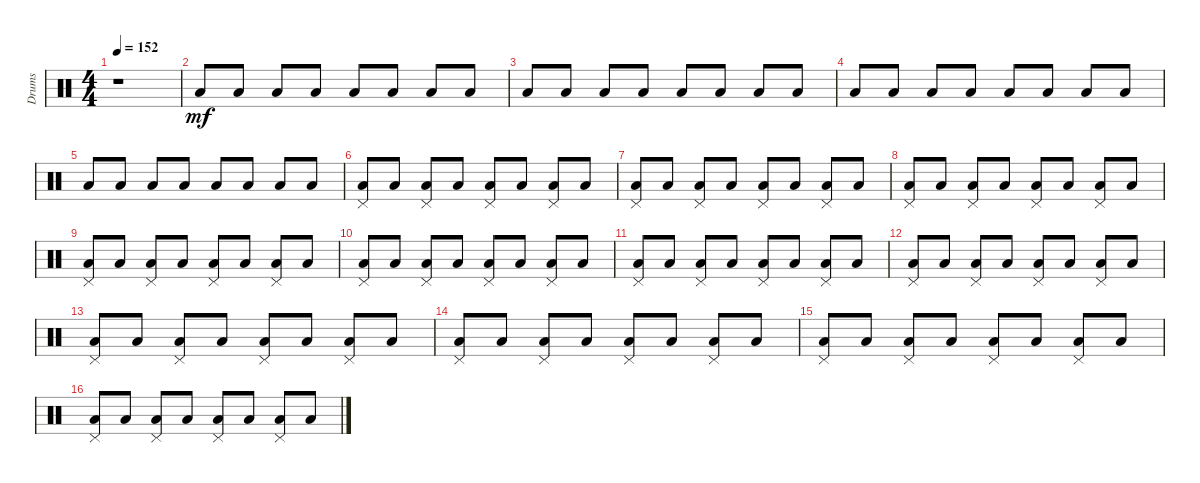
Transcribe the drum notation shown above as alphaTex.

\track ("Drums" "Drums") {instrument percussion}
\staff {score}
\articulation defaults
\ts (4 4)
\tempo 152
\clef neutral
\ks c
r.1{dy mf} |
"Low Floor Tom (hit)".8 "Low Floor Tom (hit)".8 "Low Floor Tom (hit)".8 "Low Floor Tom (hit)".8 "Low Floor Tom (hit)".8 "Low Floor Tom (hit)".8 "Low Floor Tom (hit)".8 "Low Floor Tom (hit)".8 |
"Low Floor Tom (hit)".8 "Low Floor Tom (hit)".8 "Low Floor Tom (hit)".8 "Low Floor Tom (hit)".8 "Low Floor Tom (hit)".8 "Low Floor Tom (hit)".8 "Low Floor Tom (hit)".8 "Low Floor Tom (hit)".8 |
"Low Floor Tom (hit)".8 "Low Floor Tom (hit)".8 "Low Floor Tom (hit)".8 "Low Floor Tom (hit)".8 "Low Floor Tom (hit)".8 "Low Floor Tom (hit)".8 "Low Floor Tom (hit)".8 "Low Floor Tom (hit)".8 |
"Low Floor Tom (hit)".8 "Low Floor Tom (hit)".8 "Low Floor Tom (hit)".8 "Low Floor Tom (hit)".8 "Low Floor Tom (hit)".8 "Low Floor Tom (hit)".8 "Low Floor Tom (hit)".8 "Low Floor Tom (hit)".8 |
("Pedal Hi-Hat (hit)" "Low Floor Tom (hit)").8 "Low Floor Tom (hit)".8 ("Pedal Hi-Hat (hit)" "Low Floor Tom (hit)").8 "Low Floor Tom (hit)".8 ("Pedal Hi-Hat (hit)" "Low Floor Tom (hit)").8 "Low Floor Tom (hit)".8 ("Pedal Hi-Hat (hit)" "Low Floor Tom (hit)").8 "Low Floor Tom (hit)".8 |
("Pedal Hi-Hat (hit)" "Low Floor Tom (hit)").8 "Low Floor Tom (hit)".8 ("Pedal Hi-Hat (hit)" "Low Floor Tom (hit)").8 "Low Floor Tom (hit)".8 ("Pedal Hi-Hat (hit)" "Low Floor Tom (hit)").8 "Low Floor Tom (hit)".8 ("Pedal Hi-Hat (hit)" "Low Floor Tom (hit)").8 "Low Floor Tom (hit)".8 |
("Low Floor Tom (hit)" "Pedal Hi-Hat (hit)").8 "Low Floor Tom (hit)".8 ("Low Floor Tom (hit)" "Pedal Hi-Hat (hit)").8 "Low Floor Tom (hit)".8 ("Low Floor Tom (hit)" "Pedal Hi-Hat (hit)").8 "Low Floor Tom (hit)".8 ("Low Floor Tom (hit)" "Pedal Hi-Hat (hit)").8 "Low Floor Tom (hit)".8 |
("Low Floor Tom (hit)" "Pedal Hi-Hat (hit)").8 "Low Floor Tom (hit)".8 ("Low Floor Tom (hit)" "Pedal Hi-Hat (hit)").8 "Low Floor Tom (hit)".8 ("Low Floor Tom (hit)" "Pedal Hi-Hat (hit)").8 "Low Floor Tom (hit)".8 ("Low Floor Tom (hit)" "Pedal Hi-Hat (hit)").8 "Low Floor Tom (hit)".8 |
("Low Floor Tom (hit)" "Pedal Hi-Hat (hit)").8 "Low Floor Tom (hit)".8 ("Low Floor Tom (hit)" "Pedal Hi-Hat (hit)").8 "Low Floor Tom (hit)".8 ("Low Floor Tom (hit)" "Pedal Hi-Hat (hit)").8 "Low Floor Tom (hit)".8 ("Low Floor Tom (hit)" "Pedal Hi-Hat (hit)").8 "Low Floor Tom (hit)".8 |
("Low Floor Tom (hit)" "Pedal Hi-Hat (hit)").8 "Low Floor Tom (hit)".8 ("Low Floor Tom (hit)" "Pedal Hi-Hat (hit)").8 "Low Floor Tom (hit)".8 ("Low Floor Tom (hit)" "Pedal Hi-Hat (hit)").8 "Low Floor Tom (hit)".8 ("Low Floor Tom (hit)" "Pedal Hi-Hat (hit)").8 "Low Floor Tom (hit)".8 |
("Pedal Hi-Hat (hit)" "Low Floor Tom (hit)").8 "Low Floor Tom (hit)".8 ("Pedal Hi-Hat (hit)" "Low Floor Tom (hit)").8 "Low Floor Tom (hit)".8 ("Pedal Hi-Hat (hit)" "Low Floor Tom (hit)").8 "Low Floor Tom (hit)".8 ("Pedal Hi-Hat (hit)" "Low Floor Tom (hit)").8 "Low Floor Tom (hit)".8 |
("Pedal Hi-Hat (hit)" "Low Floor Tom (hit)").8 "Low Floor Tom (hit)".8 ("Pedal Hi-Hat (hit)" "Low Floor Tom (hit)").8 "Low Floor Tom (hit)".8 ("Pedal Hi-Hat (hit)" "Low Floor Tom (hit)").8 "Low Floor Tom (hit)".8 ("Pedal Hi-Hat (hit)" "Low Floor Tom (hit)").8 "Low Floor Tom (hit)".8 |
("Pedal Hi-Hat (hit)" "Low Floor Tom (hit)").8 "Low Floor Tom (hit)".8 ("Pedal Hi-Hat (hit)" "Low Floor Tom (hit)").8 "Low Floor Tom (hit)".8 ("Pedal Hi-Hat (hit)" "Low Floor Tom (hit)").8 "Low Floor Tom (hit)".8 ("Pedal Hi-Hat (hit)" "Low Floor Tom (hit)").8 "Low Floor Tom (hit)".8 |
("Pedal Hi-Hat (hit)" "Low Floor Tom (hit)").8 "Low Floor Tom (hit)".8 ("Pedal Hi-Hat (hit)" "Low Floor Tom (hit)").8 "Low Floor Tom (hit)".8 ("Pedal Hi-Hat (hit)" "Low Floor Tom (hit)").8 "Low Floor Tom (hit)".8 ("Pedal Hi-Hat (hit)" "Low Floor Tom (hit)").8 "Low Floor Tom (hit)".8 |
("Low Floor Tom (hit)" "Pedal Hi-Hat (hit)").8 "Low Floor Tom (hit)".8 ("Low Floor Tom (hit)" "Pedal Hi-Hat (hit)").8 "Low Floor Tom (hit)".8 ("Low Floor Tom (hit)" "Pedal Hi-Hat (hit)").8 "Low Floor Tom (hit)".8 ("Low Floor Tom (hit)" "Pedal Hi-Hat (hit)").8 "Low Floor Tom (hit)".8
